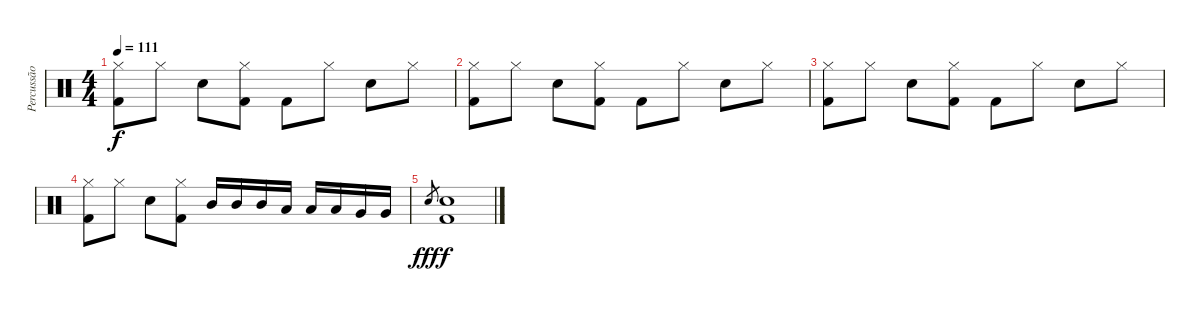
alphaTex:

\track ("Percussão" "Percussão") {instrument percussion}
\staff {score}
\articulation defaults
\ts (4 4)
\tempo 111
\clef neutral
\ks c
("Hi-Hat (closed)" "Kick (hit) 2").8{dy f} "Hi-Hat (closed)".8 "Electric Snare (hit)".8 ("Hi-Hat (closed)" "Kick (hit) 2").8 "Kick (hit) 2".8 "Hi-Hat (closed)".8 "Electric Snare (hit)".8 "Hi-Hat (closed)".8 |
("Hi-Hat (closed)" "Kick (hit) 2").8 "Hi-Hat (closed)".8 "Electric Snare (hit)".8 ("Hi-Hat (closed)" "Kick (hit) 2").8 "Kick (hit) 2".8 "Hi-Hat (closed)".8 "Electric Snare (hit)".8 "Hi-Hat (closed)".8 |
("Hi-Hat (closed)" "Kick (hit) 2").8 "Hi-Hat (closed)".8 "Electric Snare (hit)".8 ("Hi-Hat (closed)" "Kick (hit) 2").8 "Kick (hit) 2".8 "Hi-Hat (closed)".8 "Electric Snare (hit)".8 "Hi-Hat (closed)".8 |
("Hi-Hat (closed)" "Kick (hit) 2").8 "Hi-Hat (closed)".8 "Electric Snare (hit)".8 ("Hi-Hat (closed)" "Kick (hit) 2").8 "Mid Tom (hit)".16 "Mid Tom (hit)".16 "Mid Tom (hit)".16 "Low Tom (hit)".16 "Low Tom (hit)".16 "Low Tom (hit)".16 "Very Low Tom (hit)".16 "Very Low Tom (hit)".16 |
"Electric Snare (hit)".8{gr dy fff} ("Electric Snare (hit)" "Kick (hit) 2").1{dy f}
